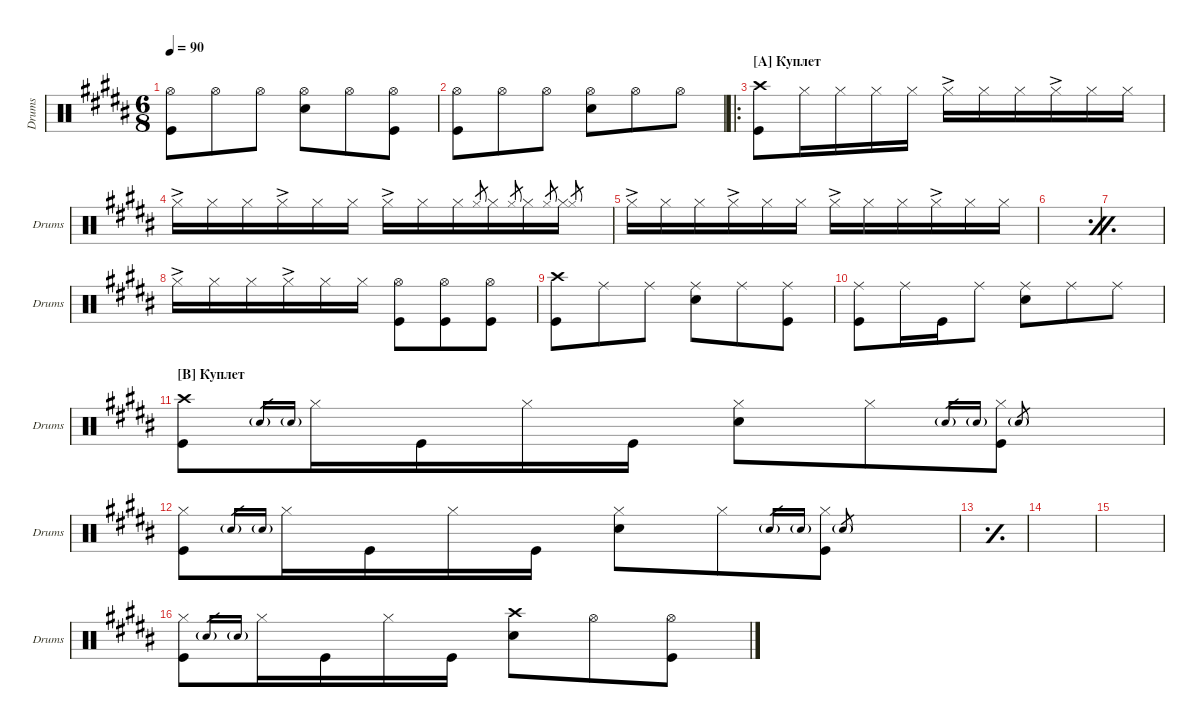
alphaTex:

\defaultSystemsLayout 4
\hideDynamics
\bracketExtendMode groupsimilarinstruments
\singleTrackTrackNamePolicy allsystems
\multiTrackTrackNamePolicy allsystems
\otherSystemsTrackNameOrientation horizontal
\track ("Drum" "Drums") {instrument percussion}
\staff {score}
\articulation defaults
\ts (6 8)
\tempo 90
\clef neutral
\scale
0.144793
\ks b
("Kick (hit)" "Hi-Hat (open)").8{dy mf} "Hi-Hat (open)".8 "Hi-Hat (open)".8 ("Hi-Hat (open)" "Snare (hit) 2").8 "Hi-Hat (open)".8 ("Hi-Hat (open)" "Kick (hit)").8 |
\scale
0.137313 ("Kick (hit)" "Hi-Hat (open)").8 "Hi-Hat (open)".8 "Hi-Hat (open)".8 ("Hi-Hat (open)" "Snare (hit) 2").8 "Hi-Hat (open)".8 "Hi-Hat (open)".8 |
\ro
\section ("A" "Куплет")
\scale
0.158661 ("Kick (hit)" "Crash high (hit)").8 "Hi-Hat (closed)".16 "Hi-Hat (closed)".16 "Hi-Hat (closed)".16 "Hi-Hat (closed)".16 "Hi-Hat (closed)"{ac}.16 "Hi-Hat (closed)".16 "Hi-Hat (closed)".16 "Hi-Hat (closed)"{ac}.16 "Hi-Hat (closed)".16 "Hi-Hat (closed)".16 |
\scale
0.190034 "Hi-Hat (closed)"{ac}.16 "Hi-Hat (closed)".16 "Hi-Hat (closed)".16 "Hi-Hat (closed)"{ac}.16 "Hi-Hat (closed)".16 "Hi-Hat (closed)".16 "Hi-Hat (closed)"{ac}.16 "Hi-Hat (closed)".16 "Hi-Hat (closed)".16 "Hi-Hat (closed)".8{gr} "Hi-Hat (closed)".16 "Hi-Hat (closed)".8{gr} "Hi-Hat (closed)".16 "Hi-Hat (closed)".8{gr} "Hi-Hat (closed)".16 "Hi-Hat (closed)".8{gr} |
"Hi-Hat (closed)"{ac}.16 "Hi-Hat (closed)".16 "Hi-Hat (closed)".16 "Hi-Hat (closed)"{ac}.16 "Hi-Hat (closed)".16 "Hi-Hat (closed)".16 "Hi-Hat (closed)"{ac}.16 "Hi-Hat (closed)".16 "Hi-Hat (closed)".16 "Hi-Hat (closed)"{ac}.16 "Hi-Hat (closed)".16 "Hi-Hat (closed)".16 |
\simile firstofdouble
|
\simile secondofdouble
|
\simile none "Hi-Hat (closed)"{ac}.16 "Hi-Hat (closed)".16 "Hi-Hat (closed)".16 "Hi-Hat (closed)"{ac}.16 "Hi-Hat (closed)".16 "Hi-Hat (closed)".16
("Hi-Hat (open)" "Kick (hit)").8 ("Hi-Hat (open)" "Kick (hit)").8 ("Hi-Hat (open)" "Kick (hit)").8 |
("Kick (hit)" "Crash high (hit)").8 "Ride (middle)".8 "Ride (middle)".8 ("Ride (middle)" "Snare (hit) 2").8 "Ride (middle)".8 ("Ride (middle)" "Kick (hit)").8 |
("Kick (hit)" "Ride (middle)").8 "Ride (middle)".16 "Kick (hit)".16 "Ride (middle)".8 ("Ride (middle)" "Snare (hit) 2").8 "Ride (middle)".8 "Ride (middle)".8 |
\section ("B" "Куплет")
("Kick (hit)" "Crash high (hit)").8 "Snare (hit) 2"{g}.16{gr} "Snare (hit) 2"{g}.16{gr} "Hi-Hat (closed)".16 "Kick (hit)".16 "Hi-Hat (closed)".16 "Kick (hit)".16 ("Snare (hit) 2" "Hi-Hat (closed)").8 "Hi-Hat (closed)".8 "Snare (hit) 2"{g}.16{gr} "Snare (hit) 2"{g}.16{gr} ("Hi-Hat (closed)" "Kick (hit)").8 "Snare (hit) 2"{g}.8{gr} |
("Kick (hit)" "Hi-Hat (closed)").8 "Snare (hit) 2"{g}.16{gr} "Snare (hit) 2"{g}.16{gr} "Hi-Hat (closed)".16 "Kick (hit)".16 "Hi-Hat (closed)".16 "Kick (hit)".16 ("Snare (hit) 2" "Hi-Hat (closed)").8 "Hi-Hat (closed)".8 "Snare (hit) 2"{g}.16{gr} "Snare (hit) 2"{g}.16{gr} ("Hi-Hat (closed)" "Kick (hit)").8 "Snare (hit) 2"{g}.8{gr} |
\simile simple
|
|
|
\simile none
("Kick (hit)" "Hi-Hat (closed)").8 "Snare (hit) 2"{g}.16{gr} "Snare (hit) 2"{g}.16{gr} "Hi-Hat (closed)".16 "Kick (hit)".16 "Hi-Hat (closed)".16 "Kick (hit)".16 ("Snare (hit) 2" "Crash high (hit)").8 "Hi-Hat (open)".8 ("Kick (hit)" "Hi-Hat (open)").8
